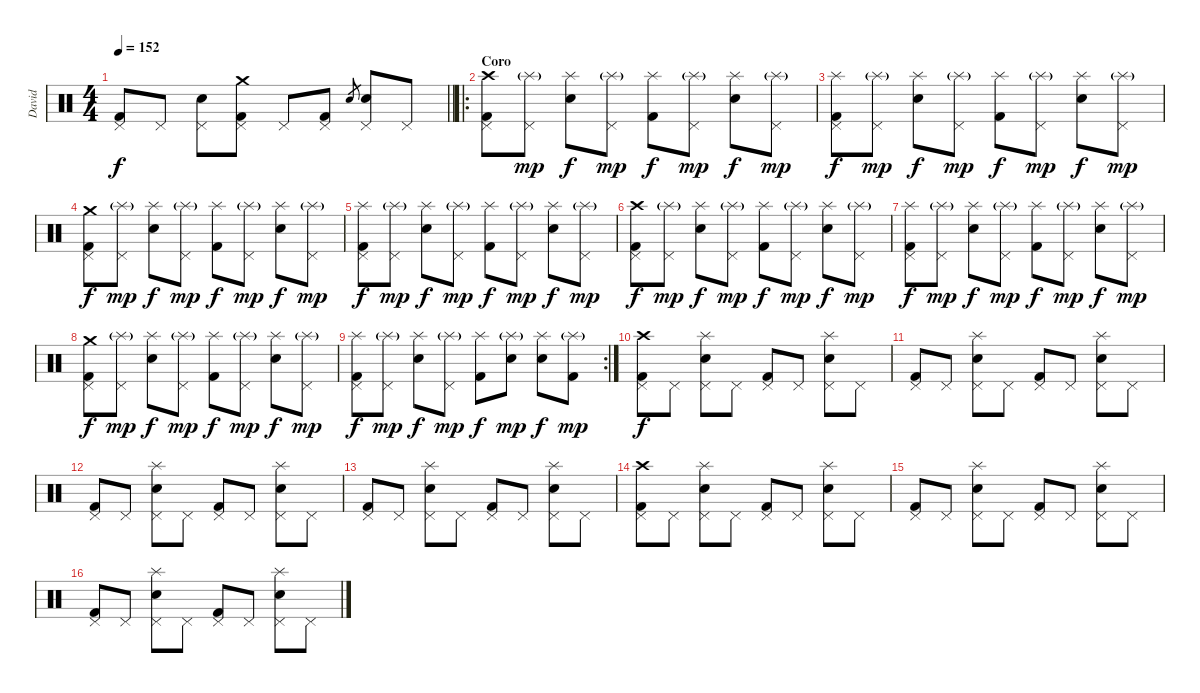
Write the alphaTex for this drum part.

\track ("David" "David") {instrument percussion}
\staff {score}
\articulation defaults
\ts (4 4)
\tempo 152
\clef neutral
\barLineRight lightlight
\ks c
("Kick (hit) 2" "Pedal Hi-Hat (hit)").8{dy f} "Pedal Hi-Hat (hit)".8 ("Snare (hit) 2" "Pedal Hi-Hat (hit)").8 ("Kick (hit) 2" "Pedal Hi-Hat (hit)" "Crash medium (hit)").8 "Pedal Hi-Hat (hit)".8 ("Kick (hit) 2" "Pedal Hi-Hat (hit)").8 "Snare (hit) 2".8{gr} ("Snare (hit) 2" "Pedal Hi-Hat (hit)").8 "Pedal Hi-Hat (hit)".8 |
\ro
\section ("" "Coro")
("Kick (hit) 2" "Pedal Hi-Hat (hit)" "Crash high (hit)").8 ("Pedal Hi-Hat (hit)" "Splash (hit)"{g}).8{dy mp} ("Snare (hit) 2" "Splash (hit)").8{dy f} ("Pedal Hi-Hat (hit)" "Splash (hit)"{g}).8{dy mp} ("Kick (hit) 2" "Splash (hit)").8{dy f} ("Pedal Hi-Hat (hit)" "Splash (hit)"{g}).8{dy mp} ("Snare (hit) 2" "Splash (hit)").8{dy f} ("Pedal Hi-Hat (hit)" "Splash (hit)"{g}).8{dy mp} |
("Kick (hit) 2" "Pedal Hi-Hat (hit)" "Splash (hit)").8{dy f} ("Pedal Hi-Hat (hit)" "Splash (hit)"{g}).8{dy mp} ("Snare (hit) 2" "Splash (hit)").8{dy f} ("Pedal Hi-Hat (hit)" "Splash (hit)"{g}).8{dy mp} ("Kick (hit) 2" "Splash (hit)").8{dy f} ("Pedal Hi-Hat (hit)" "Splash (hit)"{g}).8{dy mp} ("Snare (hit) 2" "Splash (hit)").8{dy f} ("Pedal Hi-Hat (hit)" "Splash (hit)"{g}).8{dy mp} |
("Kick (hit) 2" "Pedal Hi-Hat (hit)" "Crash medium (hit)").8{dy f} ("Pedal Hi-Hat (hit)" "Splash (hit)"{g}).8{dy mp} ("Snare (hit) 2" "Splash (hit)").8{dy f} ("Pedal Hi-Hat (hit)" "Splash (hit)"{g}).8{dy mp} ("Kick (hit) 2" "Splash (hit)").8{dy f} ("Pedal Hi-Hat (hit)" "Splash (hit)"{g}).8{dy mp} ("Snare (hit) 2" "Splash (hit)").8{dy f} ("Pedal Hi-Hat (hit)" "Splash (hit)"{g}).8{dy mp} |
("Kick (hit) 2" "Pedal Hi-Hat (hit)" "Splash (hit)").8{dy f} ("Pedal Hi-Hat (hit)" "Splash (hit)"{g}).8{dy mp} ("Snare (hit) 2" "Splash (hit)").8{dy f} ("Pedal Hi-Hat (hit)" "Splash (hit)"{g}).8{dy mp} ("Kick (hit) 2" "Splash (hit)").8{dy f} ("Pedal Hi-Hat (hit)" "Splash (hit)"{g}).8{dy mp} ("Snare (hit) 2" "Splash (hit)").8{dy f} ("Pedal Hi-Hat (hit)" "Splash (hit)"{g}).8{dy mp} |
("Kick (hit) 2" "Pedal Hi-Hat (hit)" "Crash high (hit)").8{dy f} ("Pedal Hi-Hat (hit)" "Splash (hit)"{g}).8{dy mp} ("Snare (hit) 2" "Splash (hit)").8{dy f} ("Pedal Hi-Hat (hit)" "Splash (hit)"{g}).8{dy mp} ("Kick (hit) 2" "Splash (hit)").8{dy f} ("Pedal Hi-Hat (hit)" "Splash (hit)"{g}).8{dy mp} ("Snare (hit) 2" "Splash (hit)").8{dy f} ("Pedal Hi-Hat (hit)" "Splash (hit)"{g}).8{dy mp} |
("Kick (hit) 2" "Pedal Hi-Hat (hit)" "Splash (hit)").8{dy f} ("Pedal Hi-Hat (hit)" "Splash (hit)"{g}).8{dy mp} ("Snare (hit) 2" "Splash (hit)").8{dy f} ("Pedal Hi-Hat (hit)" "Splash (hit)"{g}).8{dy mp} ("Kick (hit) 2" "Splash (hit)").8{dy f} ("Pedal Hi-Hat (hit)" "Splash (hit)"{g}).8{dy mp} ("Snare (hit) 2" "Splash (hit)").8{dy f} ("Pedal Hi-Hat (hit)" "Splash (hit)"{g}).8{dy mp} |
("Kick (hit) 2" "Pedal Hi-Hat (hit)" "Crash medium (hit)").8{dy f} ("Pedal Hi-Hat (hit)" "Splash (hit)"{g}).8{dy mp} ("Snare (hit) 2" "Splash (hit)").8{dy f} ("Pedal Hi-Hat (hit)" "Splash (hit)"{g}).8{dy mp} ("Kick (hit) 2" "Splash (hit)").8{dy f} ("Pedal Hi-Hat (hit)" "Splash (hit)"{g}).8{dy mp} ("Snare (hit) 2" "Splash (hit)").8{dy f} ("Pedal Hi-Hat (hit)" "Splash (hit)"{g}).8{dy mp} |
\rc 2
("Kick (hit) 2" "Pedal Hi-Hat (hit)" "Splash (hit)").8{dy f} ("Pedal Hi-Hat (hit)" "Splash (hit)"{g}).8{dy mp} ("Snare (hit) 2" "Splash (hit)").8{dy f} ("Pedal Hi-Hat (hit)" "Splash (hit)"{g}).8{dy mp} ("Kick (hit) 2" "Splash (hit)").8{dy f} ("Snare (hit) 2" "Splash (hit)"{g}).8{dy mp} ("Snare (hit) 2" "Splash (hit)").8{dy f} ("Kick (hit) 2" "Splash (hit)"{g}).8{dy mp} |
("Kick (hit) 2" "Pedal Hi-Hat (hit)" "Crash high (hit)").8{dy f} "Pedal Hi-Hat (hit)".8 ("Snare (hit) 2" "Pedal Hi-Hat (hit)" "Splash (hit)").8 "Pedal Hi-Hat (hit)".8 ("Kick (hit) 2" "Pedal Hi-Hat (hit)").8 "Pedal Hi-Hat (hit)".8 ("Snare (hit) 2" "Pedal Hi-Hat (hit)" "Splash (hit)").8 "Pedal Hi-Hat (hit)".8 |
("Kick (hit) 2" "Pedal Hi-Hat (hit)").8 "Pedal Hi-Hat (hit)".8 ("Snare (hit) 2" "Pedal Hi-Hat (hit)" "Splash (hit)").8 "Pedal Hi-Hat (hit)".8 ("Kick (hit) 2" "Pedal Hi-Hat (hit)").8 "Pedal Hi-Hat (hit)".8 ("Snare (hit) 2" "Pedal Hi-Hat (hit)" "Splash (hit)").8 "Pedal Hi-Hat (hit)".8 |
("Kick (hit) 2" "Pedal Hi-Hat (hit)").8 "Pedal Hi-Hat (hit)".8 ("Snare (hit) 2" "Pedal Hi-Hat (hit)" "Splash (hit)").8 "Pedal Hi-Hat (hit)".8 ("Kick (hit) 2" "Pedal Hi-Hat (hit)").8 "Pedal Hi-Hat (hit)".8 ("Snare (hit) 2" "Pedal Hi-Hat (hit)" "Splash (hit)").8 "Pedal Hi-Hat (hit)".8 |
("Kick (hit) 2" "Pedal Hi-Hat (hit)").8 "Pedal Hi-Hat (hit)".8 ("Snare (hit) 2" "Pedal Hi-Hat (hit)" "Splash (hit)").8 "Pedal Hi-Hat (hit)".8 ("Kick (hit) 2" "Pedal Hi-Hat (hit)").8 "Pedal Hi-Hat (hit)".8 ("Snare (hit) 2" "Pedal Hi-Hat (hit)" "Splash (hit)").8 "Pedal Hi-Hat (hit)".8 |
("Kick (hit) 2" "Pedal Hi-Hat (hit)" "Crash high (hit)").8 "Pedal Hi-Hat (hit)".8 ("Snare (hit) 2" "Pedal Hi-Hat (hit)" "Splash (hit)").8 "Pedal Hi-Hat (hit)".8 ("Kick (hit) 2" "Pedal Hi-Hat (hit)").8 "Pedal Hi-Hat (hit)".8 ("Snare (hit) 2" "Pedal Hi-Hat (hit)" "Splash (hit)").8 "Pedal Hi-Hat (hit)".8 |
("Kick (hit) 2" "Pedal Hi-Hat (hit)").8 "Pedal Hi-Hat (hit)".8 ("Snare (hit) 2" "Pedal Hi-Hat (hit)" "Splash (hit)").8 "Pedal Hi-Hat (hit)".8 ("Kick (hit) 2" "Pedal Hi-Hat (hit)").8 "Pedal Hi-Hat (hit)".8 ("Snare (hit) 2" "Pedal Hi-Hat (hit)" "Splash (hit)").8 "Pedal Hi-Hat (hit)".8 |
("Kick (hit) 2" "Pedal Hi-Hat (hit)").8 "Pedal Hi-Hat (hit)".8 ("Snare (hit) 2" "Pedal Hi-Hat (hit)" "Splash (hit)").8 "Pedal Hi-Hat (hit)".8 ("Kick (hit) 2" "Pedal Hi-Hat (hit)").8 "Pedal Hi-Hat (hit)".8 ("Snare (hit) 2" "Pedal Hi-Hat (hit)" "Splash (hit)").8 "Pedal Hi-Hat (hit)".8
